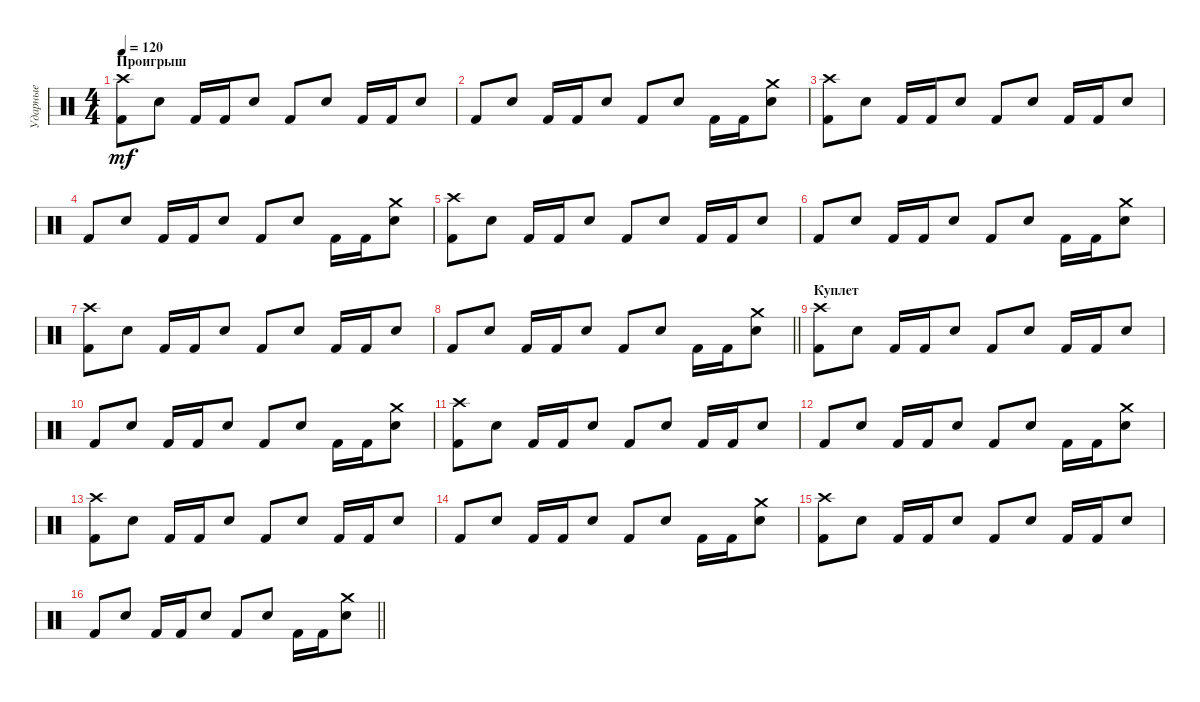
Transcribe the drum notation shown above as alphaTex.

\track ("Ударные" "Ударные") {instrument percussion}
\staff {score}
\articulation defaults
\ts (4 4)
\section ("" "Проигрыш")
\tempo 120
\clef neutral
\ks c
("Crash high (hit)" "Kick (hit) 2").8{dy mf} "Electric Snare (hit)".8 "Kick (hit) 2".16 "Kick (hit) 2".16 "Electric Snare (hit)".8 "Kick (hit) 2".8 "Electric Snare (hit)".8 "Kick (hit) 2".16 "Kick (hit) 2".16 "Electric Snare (hit)".8 |
"Kick (hit) 2".8 "Electric Snare (hit)".8 "Kick (hit) 2".16 "Kick (hit) 2".16 "Electric Snare (hit)".8 "Kick (hit) 2".8 "Electric Snare (hit)".8 "Kick (hit) 2".16 "Kick (hit) 2".16 ("Crash medium (hit)" "Electric Snare (hit)").8 |
("Crash high (hit)" "Kick (hit) 2").8 "Electric Snare (hit)".8 "Kick (hit) 2".16 "Kick (hit) 2".16 "Electric Snare (hit)".8 "Kick (hit) 2".8 "Electric Snare (hit)".8 "Kick (hit) 2".16 "Kick (hit) 2".16 "Electric Snare (hit)".8 |
"Kick (hit) 2".8 "Electric Snare (hit)".8 "Kick (hit) 2".16 "Kick (hit) 2".16 "Electric Snare (hit)".8 "Kick (hit) 2".8 "Electric Snare (hit)".8 "Kick (hit) 2".16 "Kick (hit) 2".16 ("Crash medium (hit)" "Electric Snare (hit)").8 |
("Crash high (hit)" "Kick (hit) 2").8 "Electric Snare (hit)".8 "Kick (hit) 2".16 "Kick (hit) 2".16 "Electric Snare (hit)".8 "Kick (hit) 2".8 "Electric Snare (hit)".8 "Kick (hit) 2".16 "Kick (hit) 2".16 "Electric Snare (hit)".8 |
"Kick (hit) 2".8 "Electric Snare (hit)".8 "Kick (hit) 2".16 "Kick (hit) 2".16 "Electric Snare (hit)".8 "Kick (hit) 2".8 "Electric Snare (hit)".8 "Kick (hit) 2".16 "Kick (hit) 2".16 ("Crash medium (hit)" "Electric Snare (hit)").8 |
("Crash high (hit)" "Kick (hit) 2").8 "Electric Snare (hit)".8 "Kick (hit) 2".16 "Kick (hit) 2".16 "Electric Snare (hit)".8 "Kick (hit) 2".8 "Electric Snare (hit)".8 "Kick (hit) 2".16 "Kick (hit) 2".16 "Electric Snare (hit)".8 |
\barLineRight lightlight "Kick (hit) 2".8 "Electric Snare (hit)".8 "Kick (hit) 2".16 "Kick (hit) 2".16 "Electric Snare (hit)".8 "Kick (hit) 2".8 "Electric Snare (hit)".8 "Kick (hit) 2".16 "Kick (hit) 2".16
("Crash medium (hit)" "Electric Snare (hit)").8 |
\section ("" "Куплет")
("Crash high (hit)" "Kick (hit) 2").8 "Electric Snare (hit)".8 "Kick (hit) 2".16 "Kick (hit) 2".16 "Electric Snare (hit)".8 "Kick (hit) 2".8 "Electric Snare (hit)".8 "Kick (hit) 2".16 "Kick (hit) 2".16 "Electric Snare (hit)".8 |
"Kick (hit) 2".8 "Electric Snare (hit)".8 "Kick (hit) 2".16 "Kick (hit) 2".16 "Electric Snare (hit)".8 "Kick (hit) 2".8 "Electric Snare (hit)".8 "Kick (hit) 2".16 "Kick (hit) 2".16 ("Crash medium (hit)" "Electric Snare (hit)").8 |
("Crash high (hit)" "Kick (hit) 2").8 "Electric Snare (hit)".8 "Kick (hit) 2".16 "Kick (hit) 2".16 "Electric Snare (hit)".8 "Kick (hit) 2".8 "Electric Snare (hit)".8 "Kick (hit) 2".16 "Kick (hit) 2".16 "Electric Snare (hit)".8 |
"Kick (hit) 2".8 "Electric Snare (hit)".8 "Kick (hit) 2".16 "Kick (hit) 2".16 "Electric Snare (hit)".8 "Kick (hit) 2".8 "Electric Snare (hit)".8 "Kick (hit) 2".16 "Kick (hit) 2".16 ("Crash medium (hit)" "Electric Snare (hit)").8 |
("Crash high (hit)" "Kick (hit) 2").8 "Electric Snare (hit)".8 "Kick (hit) 2".16 "Kick (hit) 2".16 "Electric Snare (hit)".8 "Kick (hit) 2".8 "Electric Snare (hit)".8 "Kick (hit) 2".16 "Kick (hit) 2".16 "Electric Snare (hit)".8 |
"Kick (hit) 2".8 "Electric Snare (hit)".8 "Kick (hit) 2".16 "Kick (hit) 2".16 "Electric Snare (hit)".8 "Kick (hit) 2".8 "Electric Snare (hit)".8 "Kick (hit) 2".16 "Kick (hit) 2".16 ("Crash medium (hit)" "Electric Snare (hit)").8 |
("Crash high (hit)" "Kick (hit) 2").8 "Electric Snare (hit)".8 "Kick (hit) 2".16 "Kick (hit) 2".16 "Electric Snare (hit)".8 "Kick (hit) 2".8 "Electric Snare (hit)".8 "Kick (hit) 2".16 "Kick (hit) 2".16 "Electric Snare (hit)".8 |
\barLineRight lightlight "Kick (hit) 2".8 "Electric Snare (hit)".8 "Kick (hit) 2".16 "Kick (hit) 2".16 "Electric Snare (hit)".8 "Kick (hit) 2".8 "Electric Snare (hit)".8 "Kick (hit) 2".16 "Kick (hit) 2".16
("Crash medium (hit)" "Electric Snare (hit)").8
